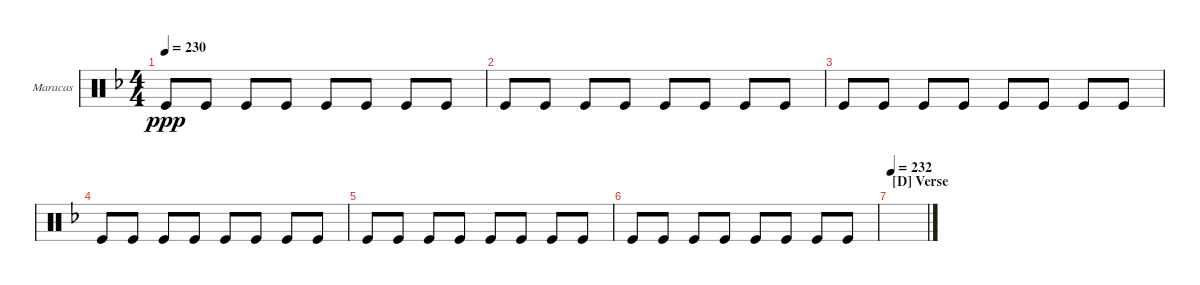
\defaultSystemsLayout 4
\bracketExtendMode groupsimilarinstruments
\firstSystemTrackNameOrientation horizontal
\otherSystemsTrackNameOrientation horizontal
\track ("Maracas" "Maracas") {instrument percussion}
\staff {score}
\articulation defaults
\ts (4 4)
\tempo 230
\clef neutral
\scale
0.333333
\ks dminor "Kick (hit)".8{dy ppp} "Kick (hit)".8 "Kick (hit)".8 "Kick (hit)".8 "Kick (hit)".8 "Kick (hit)".8 "Kick (hit)".8 "Kick (hit)".8
|
\scale
0.333333 "Kick (hit)".8 "Kick (hit)".8 "Kick (hit)".8 "Kick (hit)".8 "Kick (hit)".8 "Kick (hit)".8 "Kick (hit)".8 "Kick (hit)".8 |
\scale
0.333333 "Kick (hit)".8 "Kick (hit)".8 "Kick (hit)".8 "Kick (hit)".8 "Kick (hit)".8 "Kick (hit)".8 "Kick (hit)".8 "Kick (hit)".8 |
\scale
0.333333 "Kick (hit)".8 "Kick (hit)".8 "Kick (hit)".8 "Kick (hit)".8 "Kick (hit)".8 "Kick (hit)".8 "Kick (hit)".8 "Kick (hit)".8 |
\scale
0.333333 "Kick (hit)".8 "Kick (hit)".8 "Kick (hit)".8 "Kick (hit)".8 "Kick (hit)".8 "Kick (hit)".8 "Kick (hit)".8 "Kick (hit)".8 |
\scale
0.333333 "Kick (hit)".8 "Kick (hit)".8 "Kick (hit)".8 "Kick (hit)".8 "Kick (hit)".8 "Kick (hit)".8 "Kick (hit)".8 "Kick (hit)".8 |
\section ("D" "Verse")
\tempo 232
\scale
0.333333 |
\scale
0.333333 |
\scale
0.333333 |
\scale
0.333333 |
\scale
0.333333 |
\scale
0.333333 |
\scale
0.333333 |
\scale
0.333333 |
\scale
0.333333 |
\scale
0.333333
